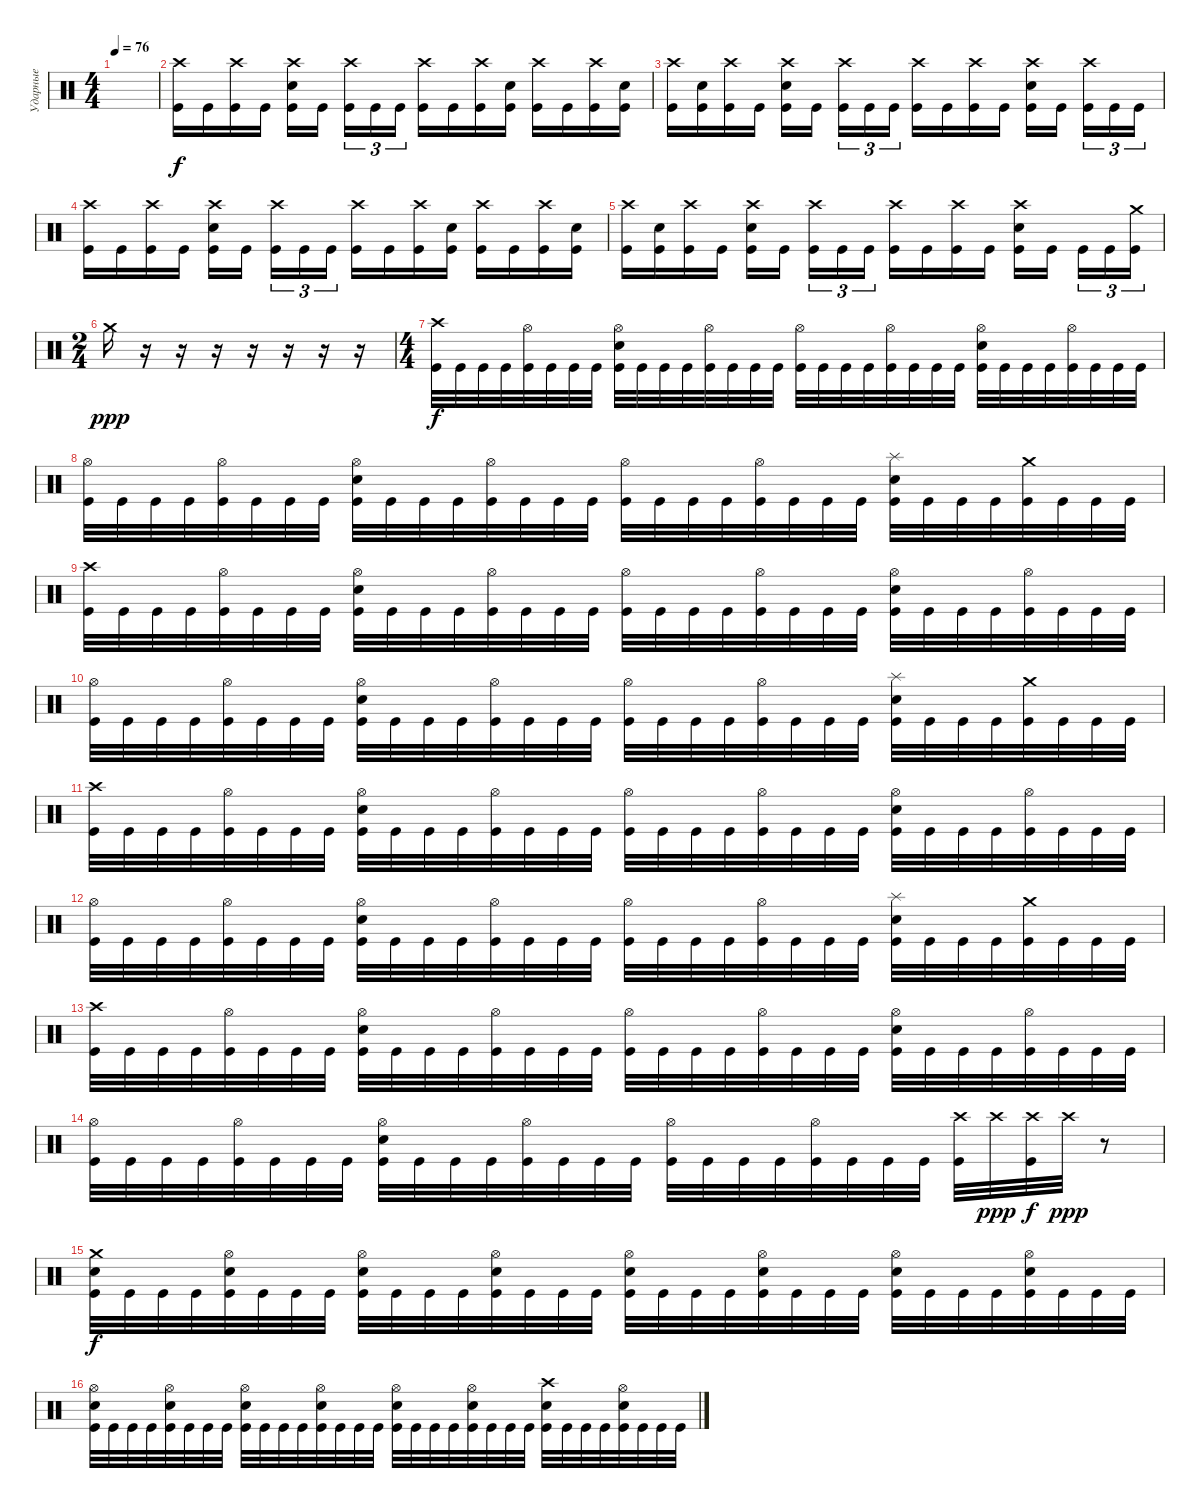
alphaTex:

\track ("Ударные" "Ударные") {instrument percussion}
\staff {score}
\articulation defaults
\ts (4 4)
\tempo 76
\clef neutral
\ks c
|
("Crash high (hit)" "Kick (hit)").16 "Kick (hit)".16 ("Crash high (hit)" "Kick (hit)").16 "Kick (hit)".16 ("Crash high (hit)" "Snare (hit) 2" "Kick (hit)").16 "Kick (hit)".16 ("Crash high (hit)" "Kick (hit)").16{tu (3 2)} "Kick (hit)".16{tu (3 2)} "Kick (hit)".16{tu (3 2)} ("Crash high (hit)" "Kick (hit)").16 "Kick (hit)".16 ("Crash high (hit)" "Kick (hit)").16 ("Snare (hit) 2" "Kick (hit)").16 ("Crash high (hit)" "Kick (hit)").16 "Kick (hit)".16 ("Crash high (hit)" "Kick (hit)").16 ("Snare (hit) 2" "Kick (hit)").16 |
("Crash high (hit)" "Kick (hit)").16 ("Snare (hit) 2" "Kick (hit)").16 ("Crash high (hit)" "Kick (hit)").16 "Kick (hit)".16 ("Crash high (hit)" "Snare (hit) 2" "Kick (hit)").16 "Kick (hit)".16 ("Crash high (hit)" "Kick (hit)").16{tu (3 2)} "Kick (hit)".16{tu (3 2)} "Kick (hit)".16{tu (3 2)} ("Crash high (hit)" "Kick (hit)").16 "Kick (hit)".16 ("Crash high (hit)" "Kick (hit)").16 "Kick (hit)".16 ("Crash high (hit)" "Snare (hit) 2" "Kick (hit)").16 "Kick (hit)".16 ("Crash high (hit)" "Kick (hit)").16{tu (3 2)} "Kick (hit)".16{tu (3 2)} "Kick (hit)".16{tu (3 2)} |
("Crash high (hit)" "Kick (hit)").16 "Kick (hit)".16 ("Crash high (hit)" "Kick (hit)").16 "Kick (hit)".16 ("Crash high (hit)" "Snare (hit) 2" "Kick (hit)").16 "Kick (hit)".16 ("Crash high (hit)" "Kick (hit)").16{tu (3 2)} "Kick (hit)".16{tu (3 2)} "Kick (hit)".16{tu (3 2)} ("Crash high (hit)" "Kick (hit)").16 "Kick (hit)".16 ("Crash high (hit)" "Kick (hit)").16 ("Snare (hit) 2" "Kick (hit)").16 ("Crash high (hit)" "Kick (hit)").16 "Kick (hit)".16 ("Crash high (hit)" "Kick (hit)").16 ("Snare (hit) 2" "Kick (hit)").16 |
("Crash high (hit)" "Kick (hit)").16 ("Snare (hit) 2" "Kick (hit)").16 ("Crash high (hit)" "Kick (hit)").16 "Kick (hit)".16 ("Crash high (hit)" "Snare (hit) 2" "Kick (hit)").16 "Kick (hit)".16 ("Crash high (hit)" "Kick (hit)").16{tu (3 2)} "Kick (hit)".16{tu (3 2)} "Kick (hit)".16{tu (3 2)} ("Crash high (hit)" "Kick (hit)").16 "Kick (hit)".16 ("Crash high (hit)" "Kick (hit)").16 "Kick (hit)".16 ("Crash high (hit)" "Snare (hit) 2" "Kick (hit)").16 "Kick (hit)".16 "Kick (hit)".16{tu (3 2)} "Kick (hit)".16{tu (3 2)} ("Crash medium (hit)" "Kick (hit)").16{tu (3 2)} |
\ts (2 4)
"Crash medium (hit)".16{dy ppp} r.16 r.16 r.16 r.16 r.16 r.16 r.16 |
\ts (4 4)
("Crash high (hit)" "Kick (hit)").32{dy f} "Kick (hit)".32 "Kick (hit)".32 "Kick (hit)".32 ("Hi-Hat (open)" "Kick (hit)").32 "Kick (hit)".32 "Kick (hit)".32 "Kick (hit)".32 ("Hi-Hat (open)" "Snare (hit) 2" "Kick (hit)").32 "Kick (hit)".32 "Kick (hit)".32 "Kick (hit)".32 ("Hi-Hat (open)" "Kick (hit)").32 "Kick (hit)".32 "Kick (hit)".32 "Kick (hit)".32 ("Hi-Hat (open)" "Kick (hit)").32 "Kick (hit)".32 "Kick (hit)".32 "Kick (hit)".32 ("Hi-Hat (open)" "Kick (hit)").32 "Kick (hit)".32 "Kick (hit)".32 "Kick (hit)".32 ("Hi-Hat (open)" "Snare (hit) 2" "Kick (hit)").32 "Kick (hit)".32 "Kick (hit)".32 "Kick (hit)".32 ("Hi-Hat (open)" "Kick (hit)").32 "Kick (hit)".32 "Kick (hit)".32 "Kick (hit)".32 |
("Hi-Hat (open)" "Kick (hit)").32 "Kick (hit)".32 "Kick (hit)".32 "Kick (hit)".32 ("Hi-Hat (open)" "Kick (hit)").32 "Kick (hit)".32 "Kick (hit)".32 "Kick (hit)".32 ("Hi-Hat (open)" "Snare (hit) 2" "Kick (hit)").32 "Kick (hit)".32 "Kick (hit)".32 "Kick (hit)".32 ("Hi-Hat (open)" "Kick (hit)").32 "Kick (hit)".32 "Kick (hit)".32 "Kick (hit)".32 ("Hi-Hat (open)" "Kick (hit)").32 "Kick (hit)".32 "Kick (hit)".32 "Kick (hit)".32 ("Hi-Hat (open)" "Kick (hit)").32 "Kick (hit)".32 "Kick (hit)".32 "Kick (hit)".32 ("Splash (hit)" "Snare (hit) 2" "Kick (hit)").32 "Kick (hit)".32 "Kick (hit)".32 "Kick (hit)".32 ("Crash medium (hit)" "Kick (hit)").32 "Kick (hit)".32 "Kick (hit)".32 "Kick (hit)".32 |
("Crash high (hit)" "Kick (hit)").32 "Kick (hit)".32 "Kick (hit)".32 "Kick (hit)".32 ("Hi-Hat (open)" "Kick (hit)").32 "Kick (hit)".32 "Kick (hit)".32 "Kick (hit)".32 ("Hi-Hat (open)" "Snare (hit) 2" "Kick (hit)").32 "Kick (hit)".32 "Kick (hit)".32 "Kick (hit)".32 ("Hi-Hat (open)" "Kick (hit)").32 "Kick (hit)".32 "Kick (hit)".32 "Kick (hit)".32 ("Hi-Hat (open)" "Kick (hit)").32 "Kick (hit)".32 "Kick (hit)".32 "Kick (hit)".32 ("Hi-Hat (open)" "Kick (hit)").32 "Kick (hit)".32 "Kick (hit)".32 "Kick (hit)".32 ("Hi-Hat (open)" "Snare (hit) 2" "Kick (hit)").32 "Kick (hit)".32 "Kick (hit)".32 "Kick (hit)".32 ("Hi-Hat (open)" "Kick (hit)").32 "Kick (hit)".32 "Kick (hit)".32 "Kick (hit)".32 |
("Hi-Hat (open)" "Kick (hit)").32 "Kick (hit)".32 "Kick (hit)".32 "Kick (hit)".32 ("Hi-Hat (open)" "Kick (hit)").32 "Kick (hit)".32 "Kick (hit)".32 "Kick (hit)".32 ("Hi-Hat (open)" "Snare (hit) 2" "Kick (hit)").32 "Kick (hit)".32 "Kick (hit)".32 "Kick (hit)".32 ("Hi-Hat (open)" "Kick (hit)").32 "Kick (hit)".32 "Kick (hit)".32 "Kick (hit)".32 ("Hi-Hat (open)" "Kick (hit)").32 "Kick (hit)".32 "Kick (hit)".32 "Kick (hit)".32 ("Hi-Hat (open)" "Kick (hit)").32 "Kick (hit)".32 "Kick (hit)".32 "Kick (hit)".32 ("Splash (hit)" "Snare (hit) 2" "Kick (hit)").32 "Kick (hit)".32 "Kick (hit)".32 "Kick (hit)".32 ("Crash medium (hit)" "Kick (hit)").32 "Kick (hit)".32 "Kick (hit)".32 "Kick (hit)".32 |
("Crash high (hit)" "Kick (hit)").32 "Kick (hit)".32 "Kick (hit)".32 "Kick (hit)".32 ("Hi-Hat (open)" "Kick (hit)").32 "Kick (hit)".32 "Kick (hit)".32 "Kick (hit)".32 ("Hi-Hat (open)" "Snare (hit) 2" "Kick (hit)").32 "Kick (hit)".32 "Kick (hit)".32 "Kick (hit)".32 ("Hi-Hat (open)" "Kick (hit)").32 "Kick (hit)".32 "Kick (hit)".32 "Kick (hit)".32 ("Hi-Hat (open)" "Kick (hit)").32 "Kick (hit)".32 "Kick (hit)".32 "Kick (hit)".32 ("Hi-Hat (open)" "Kick (hit)").32 "Kick (hit)".32 "Kick (hit)".32 "Kick (hit)".32 ("Hi-Hat (open)" "Snare (hit) 2" "Kick (hit)").32 "Kick (hit)".32 "Kick (hit)".32 "Kick (hit)".32 ("Hi-Hat (open)" "Kick (hit)").32 "Kick (hit)".32 "Kick (hit)".32 "Kick (hit)".32 |
("Hi-Hat (open)" "Kick (hit)").32 "Kick (hit)".32 "Kick (hit)".32 "Kick (hit)".32 ("Hi-Hat (open)" "Kick (hit)").32 "Kick (hit)".32 "Kick (hit)".32 "Kick (hit)".32 ("Hi-Hat (open)" "Snare (hit) 2" "Kick (hit)").32 "Kick (hit)".32 "Kick (hit)".32 "Kick (hit)".32 ("Hi-Hat (open)" "Kick (hit)").32 "Kick (hit)".32 "Kick (hit)".32 "Kick (hit)".32 ("Hi-Hat (open)" "Kick (hit)").32 "Kick (hit)".32 "Kick (hit)".32 "Kick (hit)".32 ("Hi-Hat (open)" "Kick (hit)").32 "Kick (hit)".32 "Kick (hit)".32 "Kick (hit)".32 ("Splash (hit)" "Snare (hit) 2" "Kick (hit)").32 "Kick (hit)".32 "Kick (hit)".32 "Kick (hit)".32 ("Crash medium (hit)" "Kick (hit)").32 "Kick (hit)".32 "Kick (hit)".32 "Kick (hit)".32 |
("Crash high (hit)" "Kick (hit)").32 "Kick (hit)".32 "Kick (hit)".32 "Kick (hit)".32 ("Hi-Hat (open)" "Kick (hit)").32 "Kick (hit)".32 "Kick (hit)".32 "Kick (hit)".32 ("Hi-Hat (open)" "Snare (hit) 2" "Kick (hit)").32 "Kick (hit)".32 "Kick (hit)".32 "Kick (hit)".32 ("Hi-Hat (open)" "Kick (hit)").32 "Kick (hit)".32 "Kick (hit)".32 "Kick (hit)".32 ("Hi-Hat (open)" "Kick (hit)").32 "Kick (hit)".32 "Kick (hit)".32 "Kick (hit)".32 ("Hi-Hat (open)" "Kick (hit)").32 "Kick (hit)".32 "Kick (hit)".32 "Kick (hit)".32 ("Hi-Hat (open)" "Snare (hit) 2" "Kick (hit)").32 "Kick (hit)".32 "Kick (hit)".32 "Kick (hit)".32 ("Hi-Hat (open)" "Kick (hit)").32 "Kick (hit)".32 "Kick (hit)".32 "Kick (hit)".32 |
("Hi-Hat (open)" "Kick (hit)").32 "Kick (hit)".32 "Kick (hit)".32 "Kick (hit)".32 ("Hi-Hat (open)" "Kick (hit)").32 "Kick (hit)".32 "Kick (hit)".32 "Kick (hit)".32 ("Hi-Hat (open)" "Snare (hit) 2" "Kick (hit)").32 "Kick (hit)".32 "Kick (hit)".32 "Kick (hit)".32 ("Hi-Hat (open)" "Kick (hit)").32 "Kick (hit)".32 "Kick (hit)".32 "Kick (hit)".32 ("Hi-Hat (open)" "Kick (hit)").32 "Kick (hit)".32 "Kick (hit)".32 "Kick (hit)".32 ("Hi-Hat (open)" "Kick (hit)").32 "Kick (hit)".32 "Kick (hit)".32 "Kick (hit)".32 ("Crash high (hit)" "Kick (hit)").32 "Crash high (hit)".32{dy ppp} ("Crash high (hit)" "Kick (hit)").32{dy f} "Crash high (hit)".32{dy ppp} r.8 |
("Crash medium (hit)" "Snare (hit) 2" "Kick (hit)").32{dy f} "Kick (hit)".32 "Kick (hit)".32 "Kick (hit)".32 ("Hi-Hat (open)" "Snare (hit) 2" "Kick (hit)").32 "Kick (hit)".32 "Kick (hit)".32 "Kick (hit)".32 ("Hi-Hat (open)" "Snare (hit) 2" "Kick (hit)").32 "Kick (hit)".32 "Kick (hit)".32 "Kick (hit)".32 ("Hi-Hat (open)" "Snare (hit) 2" "Kick (hit)").32 "Kick (hit)".32 "Kick (hit)".32 "Kick (hit)".32 ("Hi-Hat (open)" "Snare (hit) 2" "Kick (hit)").32 "Kick (hit)".32 "Kick (hit)".32 "Kick (hit)".32 ("Hi-Hat (open)" "Snare (hit) 2" "Kick (hit)").32 "Kick (hit)".32 "Kick (hit)".32 "Kick (hit)".32 ("Hi-Hat (open)" "Snare (hit) 2" "Kick (hit)").32 "Kick (hit)".32 "Kick (hit)".32 "Kick (hit)".32 ("Hi-Hat (open)" "Snare (hit) 2" "Kick (hit)").32 "Kick (hit)".32 "Kick (hit)".32 "Kick (hit)".32 |
("Hi-Hat (open)" "Snare (hit) 2" "Kick (hit)").32 "Kick (hit)".32 "Kick (hit)".32 "Kick (hit)".32 ("Hi-Hat (open)" "Snare (hit) 2" "Kick (hit)").32 "Kick (hit)".32 "Kick (hit)".32 "Kick (hit)".32 ("Hi-Hat (open)" "Snare (hit) 2" "Kick (hit)").32 "Kick (hit)".32 "Kick (hit)".32 "Kick (hit)".32 ("Hi-Hat (open)" "Snare (hit) 2" "Kick (hit)").32 "Kick (hit)".32 "Kick (hit)".32 "Kick (hit)".32 ("Hi-Hat (open)" "Snare (hit) 2" "Kick (hit)").32 "Kick (hit)".32 "Kick (hit)".32 "Kick (hit)".32 ("Hi-Hat (open)" "Snare (hit) 2" "Kick (hit)").32 "Kick (hit)".32 "Kick (hit)".32 "Kick (hit)".32 ("Crash high (hit)" "Snare (hit) 2" "Kick (hit)").32 "Kick (hit)".32 "Kick (hit)".32 "Kick (hit)".32 ("Hi-Hat (open)" "Snare (hit) 2" "Kick (hit)").32 "Kick (hit)".32 "Kick (hit)".32 "Kick (hit)".32
